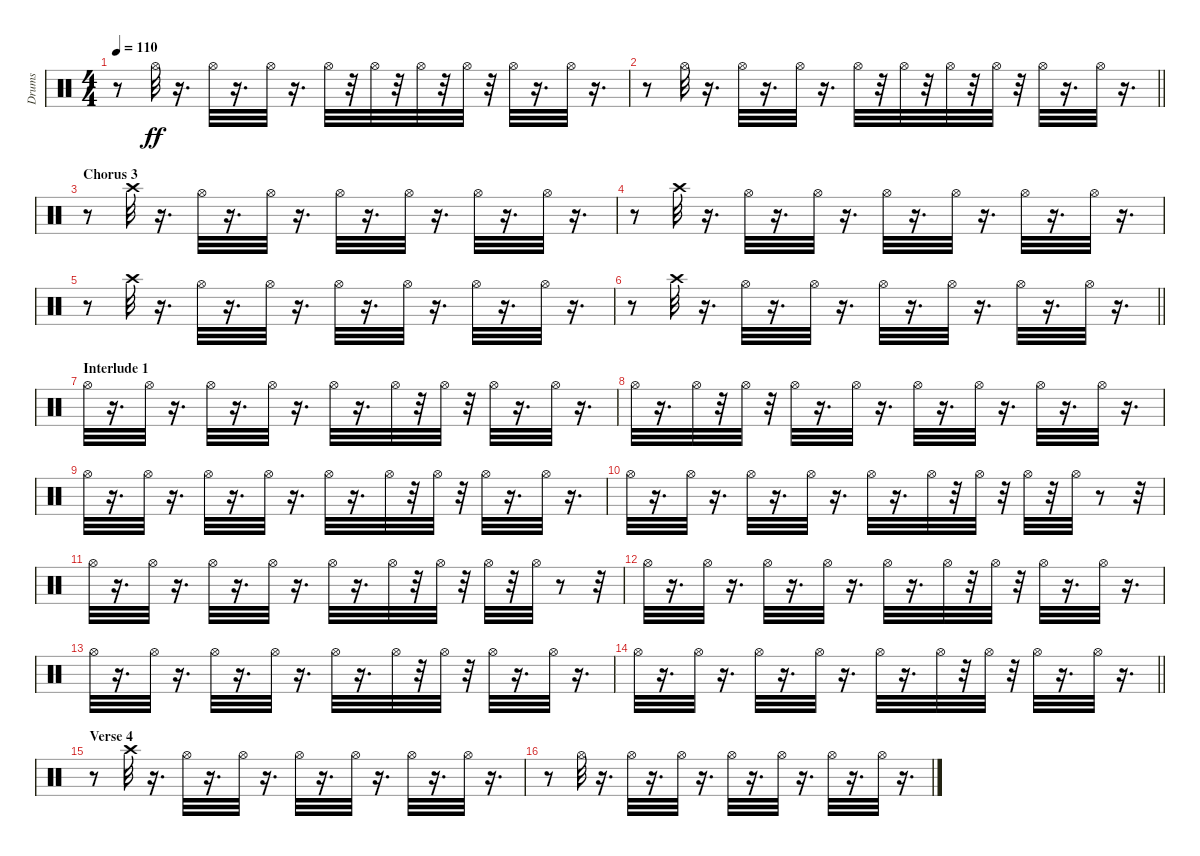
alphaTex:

\track ("Drums" "Drums") {instrument percussion}
\staff {score}
\articulation defaults
\ts (4 4)
\tempo 110
\clef neutral
\ks c
r.8{dy ff} "Hi-Hat (open)".32 r.16{d} "Hi-Hat (open)".32 r.16{d} "Hi-Hat (open)".32 r.16{d} "Hi-Hat (open)".32 r.32 "Hi-Hat (open)".32 r.32 "Hi-Hat (open)".32 r.32 "Hi-Hat (open)".32 r.32 "Hi-Hat (open)".32 r.16{d} "Hi-Hat (open)".32 r.16{d} |
\barLineRight lightlight
r.8 "Hi-Hat (open)".32 r.16{d} "Hi-Hat (open)".32 r.16{d} "Hi-Hat (open)".32 r.16{d} "Hi-Hat (open)".32 r.32 "Hi-Hat (open)".32 r.32 "Hi-Hat (open)".32 r.32 "Hi-Hat (open)".32 r.32 "Hi-Hat (open)".32 r.16{d} "Hi-Hat (open)".32 r.16{d} |
\section ("" "Chorus 3")
r.8 "Crash high (hit)".32 r.16{d} "Hi-Hat (open)".32 r.16{d} "Hi-Hat (open)".32 r.16{d} "Hi-Hat (open)".32 r.16{d} "Hi-Hat (open)".32 r.16{d} "Hi-Hat (open)".32 r.16{d} "Hi-Hat (open)".32 r.16{d} |
r.8 "Crash high (hit)".32 r.16{d} "Hi-Hat (open)".32 r.16{d} "Hi-Hat (open)".32 r.16{d} "Hi-Hat (open)".32 r.16{d} "Hi-Hat (open)".32 r.16{d} "Hi-Hat (open)".32 r.16{d} "Hi-Hat (open)".32 r.16{d} |
r.8 "Crash high (hit)".32 r.16{d} "Hi-Hat (open)".32 r.16{d} "Hi-Hat (open)".32 r.16{d} "Hi-Hat (open)".32 r.16{d} "Hi-Hat (open)".32 r.16{d} "Hi-Hat (open)".32 r.16{d} "Hi-Hat (open)".32 r.16{d} |
\barLineRight lightlight
r.8 "Crash high (hit)".32 r.16{d} "Hi-Hat (open)".32 r.16{d} "Hi-Hat (open)".32 r.16{d} "Hi-Hat (open)".32 r.16{d} "Hi-Hat (open)".32 r.16{d} "Hi-Hat (open)".32 r.16{d} "Hi-Hat (open)".32 r.16{d} |
\section ("" "Interlude 1")
"Hi-Hat (open)".32 r.16{d} "Hi-Hat (open)".32 r.16{d} "Hi-Hat (open)".32 r.16{d} "Hi-Hat (open)".32 r.16{d} "Hi-Hat (open)".32 r.16{d} "Hi-Hat (open)".32 r.32 "Hi-Hat (open)".32 r.32 "Hi-Hat (open)".32 r.16{d} "Hi-Hat (open)".32 r.16{d} |
"Hi-Hat (open)".32 r.16{d} "Hi-Hat (open)".32 r.32 "Hi-Hat (open)".32 r.32 "Hi-Hat (open)".32 r.16{d} "Hi-Hat (open)".32 r.16{d} "Hi-Hat (open)".32 r.16{d} "Hi-Hat (open)".32 r.16{d} "Hi-Hat (open)".32 r.16{d} "Hi-Hat (open)".32 r.16{d} |
"Hi-Hat (open)".32 r.16{d} "Hi-Hat (open)".32 r.16{d} "Hi-Hat (open)".32 r.16{d} "Hi-Hat (open)".32 r.16{d} "Hi-Hat (open)".32 r.16{d} "Hi-Hat (open)".32 r.32 "Hi-Hat (open)".32 r.32 "Hi-Hat (open)".32 r.16{d} "Hi-Hat (open)".32 r.16{d} |
"Hi-Hat (open)".32 r.16{d} "Hi-Hat (open)".32 r.16{d} "Hi-Hat (open)".32 r.16{d} "Hi-Hat (open)".32 r.16{d} "Hi-Hat (open)".32 r.16{d} "Hi-Hat (open)".32 r.32 "Hi-Hat (open)".32 r.32 "Hi-Hat (open)".32 r.32 "Hi-Hat (open)".32 r.8 r.32 |
"Hi-Hat (open)".32 r.16{d} "Hi-Hat (open)".32 r.16{d} "Hi-Hat (open)".32 r.16{d} "Hi-Hat (open)".32 r.16{d} "Hi-Hat (open)".32 r.16{d} "Hi-Hat (open)".32 r.32 "Hi-Hat (open)".32 r.32 "Hi-Hat (open)".32 r.32 "Hi-Hat (open)".32 r.8 r.32 |
"Hi-Hat (open)".32 r.16{d} "Hi-Hat (open)".32 r.16{d} "Hi-Hat (open)".32 r.16{d} "Hi-Hat (open)".32 r.16{d} "Hi-Hat (open)".32 r.16{d} "Hi-Hat (open)".32 r.32 "Hi-Hat (open)".32 r.32 "Hi-Hat (open)".32 r.16{d} "Hi-Hat (open)".32 r.16{d} |
"Hi-Hat (open)".32 r.16{d} "Hi-Hat (open)".32 r.16{d} "Hi-Hat (open)".32 r.16{d} "Hi-Hat (open)".32 r.16{d} "Hi-Hat (open)".32 r.16{d} "Hi-Hat (open)".32 r.32 "Hi-Hat (open)".32 r.32 "Hi-Hat (open)".32 r.16{d} "Hi-Hat (open)".32 r.16{d} |
\barLineRight lightlight "Hi-Hat (open)".32
r.16{d} "Hi-Hat (open)".32 r.16{d} "Hi-Hat (open)".32 r.16{d} "Hi-Hat (open)".32 r.16{d} "Hi-Hat (open)".32 r.16{d} "Hi-Hat (open)".32 r.32 "Hi-Hat (open)".32 r.32 "Hi-Hat (open)".32 r.16{d} "Hi-Hat (open)".32 r.16{d} |
\section ("" "Verse 4")
r.8 "Crash high (hit)".32 r.16{d} "Hi-Hat (open)".32 r.16{d} "Hi-Hat (open)".32 r.16{d} "Hi-Hat (open)".32 r.16{d} "Hi-Hat (open)".32 r.16{d} "Hi-Hat (open)".32 r.16{d} "Hi-Hat (open)".32 r.16{d} |
r.8 "Hi-Hat (open)".32 r.16{d} "Hi-Hat (open)".32 r.16{d} "Hi-Hat (open)".32 r.16{d} "Hi-Hat (open)".32 r.16{d} "Hi-Hat (open)".32 r.16{d} "Hi-Hat (open)".32 r.16{d} "Hi-Hat (open)".32 r.16{d}
